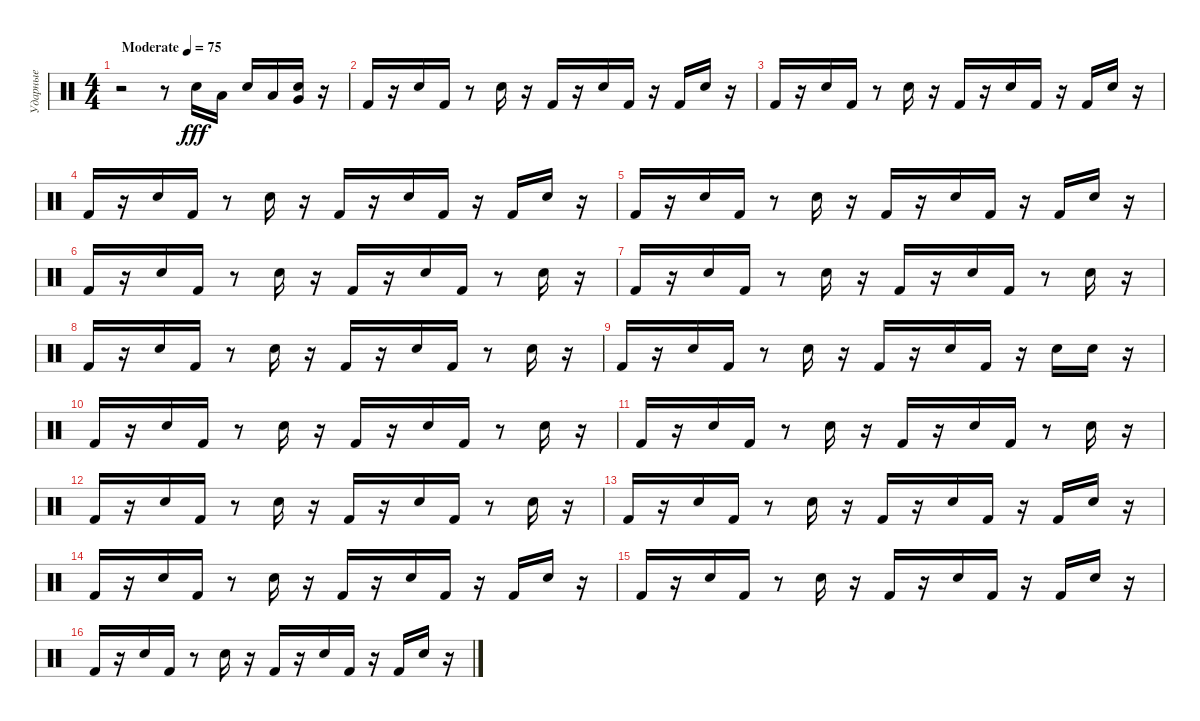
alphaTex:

\track ("Ударные" "Ударные") {instrument percussion}
\staff {score}
\articulation defaults
\ts (4 4)
\tempo (75 "Moderate")
\clef neutral
\ks c
r.2{dy fff} r.8 "Snare (hit) 2".16 "Low Tom (hit)".16 "Electric Snare (hit)".16 "Low Tom (hit)".16 ("Electric Snare (hit)" "Very Low Tom (hit)").16 r.16 |
"Kick (hit) 2".16 r.16 "Snare (hit) 2".16 "Kick (hit) 2".16 r.8 "Snare (hit) 2".16 r.16 "Kick (hit) 2".16 r.16 "Snare (hit) 2".16 "Kick (hit) 2".16 r.16 "Kick (hit) 2".16 "Snare (hit) 2".16 r.16 |
"Kick (hit) 2".16 r.16 "Snare (hit) 2".16 "Kick (hit) 2".16 r.8 "Snare (hit) 2".16 r.16 "Kick (hit) 2".16 r.16 "Snare (hit) 2".16 "Kick (hit) 2".16 r.16 "Kick (hit) 2".16 "Snare (hit) 2".16 r.16 |
"Kick (hit) 2".16 r.16 "Snare (hit) 2".16 "Kick (hit) 2".16 r.8 "Snare (hit) 2".16 r.16 "Kick (hit) 2".16 r.16 "Snare (hit) 2".16 "Kick (hit) 2".16 r.16 "Kick (hit) 2".16 "Snare (hit) 2".16 r.16 |
"Kick (hit) 2".16 r.16 "Snare (hit) 2".16 "Kick (hit) 2".16 r.8 "Snare (hit) 2".16 r.16 "Kick (hit) 2".16 r.16 "Snare (hit) 2".16 "Kick (hit) 2".16 r.16 "Kick (hit) 2".16 "Snare (hit) 2".16 r.16 |
"Kick (hit) 2".16 r.16 "Snare (hit) 2".16 "Kick (hit) 2".16 r.8 "Snare (hit) 2".16 r.16 "Kick (hit) 2".16 r.16 "Snare (hit) 2".16 "Kick (hit) 2".16 r.8 "Snare (hit) 2".16 r.16 |
"Kick (hit) 2".16 r.16 "Snare (hit) 2".16 "Kick (hit) 2".16 r.8 "Snare (hit) 2".16 r.16 "Kick (hit) 2".16 r.16 "Snare (hit) 2".16 "Kick (hit) 2".16 r.8 "Snare (hit) 2".16 r.16 |
"Kick (hit) 2".16 r.16 "Snare (hit) 2".16 "Kick (hit) 2".16 r.8 "Snare (hit) 2".16 r.16 "Kick (hit) 2".16 r.16 "Snare (hit) 2".16 "Kick (hit) 2".16 r.8 "Snare (hit) 2".16 r.16 |
"Kick (hit) 2".16 r.16 "Snare (hit) 2".16 "Kick (hit) 2".16 r.8 "Snare (hit) 2".16 r.16 "Kick (hit) 2".16 r.16 "Snare (hit) 2".16 "Kick (hit) 2".16 r.16 "Snare (hit) 2".16 "Snare (hit) 2".16 r.16 |
"Kick (hit) 2".16 r.16 "Snare (hit) 2".16 "Kick (hit) 2".16 r.8 "Snare (hit) 2".16 r.16 "Kick (hit) 2".16 r.16 "Snare (hit) 2".16 "Kick (hit) 2".16 r.8 "Snare (hit) 2".16 r.16 |
"Kick (hit) 2".16 r.16 "Snare (hit) 2".16 "Kick (hit) 2".16 r.8 "Snare (hit) 2".16 r.16 "Kick (hit) 2".16 r.16 "Snare (hit) 2".16 "Kick (hit) 2".16 r.8 "Snare (hit) 2".16 r.16 |
"Kick (hit) 2".16 r.16 "Snare (hit) 2".16 "Kick (hit) 2".16 r.8 "Snare (hit) 2".16 r.16 "Kick (hit) 2".16 r.16 "Snare (hit) 2".16 "Kick (hit) 2".16 r.8 "Snare (hit) 2".16 r.16 |
"Kick (hit) 2".16 r.16 "Snare (hit) 2".16 "Kick (hit) 2".16 r.8 "Snare (hit) 2".16 r.16 "Kick (hit) 2".16 r.16 "Snare (hit) 2".16 "Kick (hit) 2".16 r.16 "Kick (hit) 2".16 "Snare (hit) 2".16 r.16 |
"Kick (hit) 2".16 r.16 "Snare (hit) 2".16 "Kick (hit) 2".16 r.8 "Snare (hit) 2".16 r.16 "Kick (hit) 2".16 r.16 "Snare (hit) 2".16 "Kick (hit) 2".16 r.16 "Kick (hit) 2".16 "Snare (hit) 2".16 r.16 |
"Kick (hit) 2".16 r.16 "Snare (hit) 2".16 "Kick (hit) 2".16 r.8 "Snare (hit) 2".16 r.16 "Kick (hit) 2".16 r.16 "Snare (hit) 2".16 "Kick (hit) 2".16 r.16 "Kick (hit) 2".16 "Snare (hit) 2".16 r.16 |
"Kick (hit) 2".16 r.16 "Snare (hit) 2".16 "Kick (hit) 2".16 r.8 "Snare (hit) 2".16 r.16 "Kick (hit) 2".16 r.16 "Snare (hit) 2".16 "Kick (hit) 2".16 r.16 "Kick (hit) 2".16 "Snare (hit) 2".16 r.16
